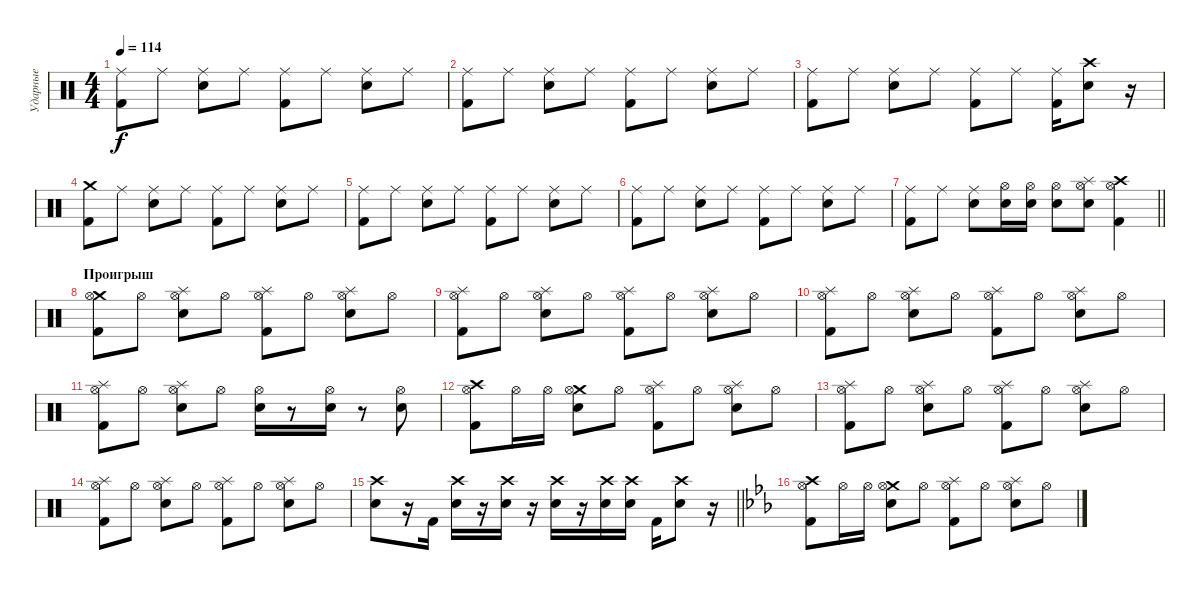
\track ("Ударные" "Ударные") {instrument percussion}
\staff {score}
\articulation defaults
\ts (4 4)
\tempo 114
\clef neutral
\ks c
("Ride (middle)" "Kick (hit) 2").8{dy f} "Ride (middle)".8 ("Ride (middle)" "Snare (hit) 2").8 "Ride (middle)".8 ("Ride (middle)" "Kick (hit) 2").8 "Ride (middle)".8 ("Ride (middle)" "Snare (hit) 2").8 "Ride (middle)".8 |
("Ride (middle)" "Kick (hit) 2").8 "Ride (middle)".8 ("Ride (middle)" "Snare (hit) 2").8 "Ride (middle)".8 ("Ride (middle)" "Kick (hit) 2").8 "Ride (middle)".8 ("Ride (middle)" "Snare (hit) 2").8 "Ride (middle)".8 |
("Ride (middle)" "Kick (hit) 2").8 "Ride (middle)".8 ("Ride (middle)" "Snare (hit) 2").8 "Ride (middle)".8 ("Ride (middle)" "Kick (hit) 2").8 "Ride (middle)".8 ("Ride (middle)" "Kick (hit) 2").16 ("Crash high (hit)" "Snare (hit) 2").8 r.16 |
("Crash medium (hit)" "Kick (hit) 2").8 "Ride (middle)".8 ("Ride (middle)" "Snare (hit) 2").8 "Ride (middle)".8 ("Ride (middle)" "Kick (hit) 2").8 "Ride (middle)".8 ("Ride (middle)" "Snare (hit) 2").8 "Ride (middle)".8 |
("Ride (middle)" "Kick (hit) 2").8 "Ride (middle)".8 ("Ride (middle)" "Snare (hit) 2").8 "Ride (middle)".8 ("Ride (middle)" "Kick (hit) 2").8 "Ride (middle)".8 ("Ride (middle)" "Snare (hit) 2").8 "Ride (middle)".8 |
("Ride (middle)" "Kick (hit) 2").8 "Ride (middle)".8 ("Ride (middle)" "Snare (hit) 2").8 "Ride (middle)".8 ("Ride (middle)" "Kick (hit) 2").8 "Ride (middle)".8 ("Ride (middle)" "Snare (hit) 2").8 "Ride (middle)".8 |
\barLineRight lightlight
("Ride (middle)" "Kick (hit) 2").8 "Ride (middle)".8 ("Ride (middle)" "Snare (hit) 2").8 ("Hi-Hat (open)" "Snare (hit) 2").16 ("Hi-Hat (open)" "Snare (hit) 2").16 ("Hi-Hat (open)" "Snare (hit) 2").8 ("Splash (hit)" "Hi-Hat (open)" "Snare (hit) 2").8 ("Crash high (hit)" "Hi-Hat (open)" "Kick (hit) 2").4 |
\section ("" "Проигрыш")
("Crash medium (hit)" "Hi-Hat (open)" "Kick (hit) 2").8 "Hi-Hat (open)".8 ("Splash (hit)" "Hi-Hat (open)" "Snare (hit) 2").8 "Hi-Hat (open)".8 ("Splash (hit)" "Hi-Hat (open)" "Kick (hit) 2").8 "Hi-Hat (open)".8 ("Splash (hit)" "Hi-Hat (open)" "Snare (hit) 2").8 "Hi-Hat (open)".8 |
("Splash (hit)" "Hi-Hat (open)" "Kick (hit) 2").8 "Hi-Hat (open)".8 ("Splash (hit)" "Hi-Hat (open)" "Snare (hit) 2").8 "Hi-Hat (open)".8 ("Splash (hit)" "Hi-Hat (open)" "Kick (hit) 2").8 "Hi-Hat (open)".8 ("Splash (hit)" "Hi-Hat (open)" "Snare (hit) 2").8 "Hi-Hat (open)".8 |
("Splash (hit)" "Hi-Hat (open)" "Kick (hit) 2").8 "Hi-Hat (open)".8 ("Splash (hit)" "Hi-Hat (open)" "Snare (hit) 2").8 "Hi-Hat (open)".8 ("Splash (hit)" "Hi-Hat (open)" "Kick (hit) 2").8 "Hi-Hat (open)".8 ("Splash (hit)" "Hi-Hat (open)" "Snare (hit) 2").8 "Hi-Hat (open)".8 |
("Splash (hit)" "Hi-Hat (open)" "Kick (hit) 2").8 "Hi-Hat (open)".8 ("Splash (hit)" "Hi-Hat (open)" "Snare (hit) 2").8 "Hi-Hat (open)".8 ("Hi-Hat (open)" "Snare (hit) 2").16 r.8 ("Hi-Hat (open)" "Snare (hit) 2").16 r.8 ("Hi-Hat (open)" "Snare (hit) 2").8 |
("Crash high (hit)" "Hi-Hat (open)" "Kick (hit) 2").8 "Hi-Hat (open)".16 "Hi-Hat (open)".16 ("Crash medium (hit)" "Hi-Hat (open)" "Snare (hit) 2").8 "Hi-Hat (open)".8 ("Splash (hit)" "Hi-Hat (open)" "Kick (hit) 2").8 "Hi-Hat (open)".8 ("Splash (hit)" "Hi-Hat (open)" "Snare (hit) 2").8 "Hi-Hat (open)".8 |
("Splash (hit)" "Hi-Hat (open)" "Kick (hit) 2").8 "Hi-Hat (open)".8 ("Splash (hit)" "Hi-Hat (open)" "Snare (hit) 2").8 "Hi-Hat (open)".8 ("Splash (hit)" "Hi-Hat (open)" "Kick (hit) 2").8 "Hi-Hat (open)".8 ("Splash (hit)" "Hi-Hat (open)" "Snare (hit) 2").8 "Hi-Hat (open)".8 |
("Splash (hit)" "Hi-Hat (open)" "Kick (hit) 2").8 "Hi-Hat (open)".8 ("Splash (hit)" "Hi-Hat (open)" "Snare (hit) 2").8 "Hi-Hat (open)".8 ("Splash (hit)" "Hi-Hat (open)" "Kick (hit) 2").8 "Hi-Hat (open)".8 ("Splash (hit)" "Hi-Hat (open)" "Snare (hit) 2").8 "Hi-Hat (open)".8 |
\barLineRight lightlight
("Crash high (hit)" "Snare (hit) 2").8 r.16 "Kick (hit) 2".16 ("Crash high (hit)" "Snare (hit) 2").16 r.16 ("Crash high (hit)" "Snare (hit) 2").16 r.16 ("Crash high (hit)" "Snare (hit) 2").16 r.16 ("Crash high (hit)" "Snare (hit) 2").16 ("Crash high (hit)" "Snare (hit) 2").16 "Kick (hit) 2".16 ("Crash high (hit)" "Snare (hit) 2").8 r.16 |
\ks eb
("Crash high (hit)" "Hi-Hat (open)" "Kick (hit) 2").8 "Hi-Hat (open)".16 "Hi-Hat (open)".16 ("Crash medium (hit)" "Hi-Hat (open)" "Snare (hit) 2").8 "Hi-Hat (open)".8 ("Splash (hit)" "Hi-Hat (open)" "Kick (hit) 2").8 "Hi-Hat (open)".8 ("Splash (hit)" "Hi-Hat (open)" "Snare (hit) 2").8 "Hi-Hat (open)".8
